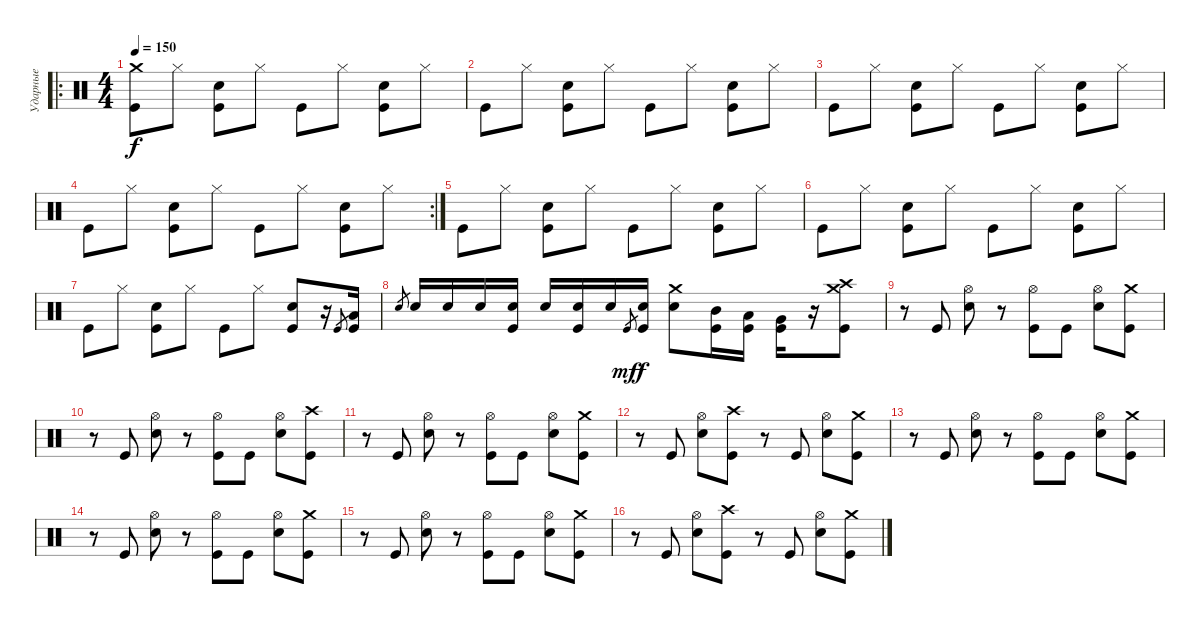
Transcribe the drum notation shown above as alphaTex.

\track ("Ударные" "Ударные") {instrument percussion}
\staff {score}
\articulation defaults
\ro
\ts (4 4)
\section ("" "")
\tempo 150
\clef neutral
\ks c
("Crash medium (hit)" "Kick (hit)").8{dy f} "Hi-Hat (closed)".8 ("Electric Snare (hit)" "Kick (hit)").8 "Hi-Hat (closed)".8 "Kick (hit)".8 "Hi-Hat (closed)".8 ("Electric Snare (hit)" "Kick (hit)").8 "Hi-Hat (closed)".8 |
"Kick (hit)".8 "Hi-Hat (closed)".8 ("Electric Snare (hit)" "Kick (hit)").8 "Hi-Hat (closed)".8 "Kick (hit)".8 "Hi-Hat (closed)".8 ("Electric Snare (hit)" "Kick (hit)").8 "Hi-Hat (closed)".8 |
"Kick (hit)".8 "Hi-Hat (closed)".8 ("Electric Snare (hit)" "Kick (hit)").8 "Hi-Hat (closed)".8 "Kick (hit)".8 "Hi-Hat (closed)".8 ("Electric Snare (hit)" "Kick (hit)").8 "Hi-Hat (closed)".8 |
\rc 2 "Kick (hit)".8 "Hi-Hat (closed)".8
("Electric Snare (hit)" "Kick (hit)").8 "Hi-Hat (closed)".8 "Kick (hit)".8 "Hi-Hat (closed)".8 ("Electric Snare (hit)" "Kick (hit)").8 "Hi-Hat (closed)".8 |
"Kick (hit)".8 "Hi-Hat (closed)".8 ("Electric Snare (hit)" "Kick (hit)").8 "Hi-Hat (closed)".8 "Kick (hit)".8 "Hi-Hat (closed)".8 ("Electric Snare (hit)" "Kick (hit)").8 "Hi-Hat (closed)".8 |
"Kick (hit)".8 "Hi-Hat (closed)".8 ("Electric Snare (hit)" "Kick (hit)").8 "Hi-Hat (closed)".8 "Kick (hit)".8 "Hi-Hat (closed)".8 ("Electric Snare (hit)" "Kick (hit)").8 "Hi-Hat (closed)".8 |
"Kick (hit)".8 "Hi-Hat (closed)".8 ("Electric Snare (hit)" "Kick (hit)").8 "Hi-Hat (closed)".8 "Kick (hit)".8 "Hi-Hat (closed)".8 ("Electric Snare (hit)" "Kick (hit)").8 r.16 "Kick (hit)".8{gr} ("Low Floor Tom (hit)" "Kick (hit)").16 |
"Electric Snare (hit)".8{gr} "Electric Snare (hit)".16 "Electric Snare (hit)".16 "Electric Snare (hit)".16 ("Electric Snare (hit)" "Kick (hit)").16 "Electric Snare (hit)".16 ("Electric Snare (hit)" "Kick (hit)").16 "Electric Snare (hit)".16 "Kick (hit)".8{gr dy mf} ("Electric Snare (hit)" "Kick (hit)").16{dy f} ("Crash medium (hit)" "Electric Snare (hit)").8 ("Mid Tom (hit)" "Kick (hit)").16 ("Low Tom (hit)" "Kick (hit)").16 ("Very Low Tom (hit)" "Kick (hit)").16 r.16 ("Crash high (hit)" "Crash medium (hit)" "Kick (hit)").8 |
r.8 "Kick (hit)".8 ("Hi-Hat (open)" "Electric Snare (hit)").8 r.8 ("Hi-Hat (open)" "Kick (hit)").8 "Kick (hit)".8 ("Hi-Hat (open)" "Electric Snare (hit)").8 ("Crash medium (hit)" "Kick (hit)").8 |
r.8 "Kick (hit)".8 ("Hi-Hat (open)" "Electric Snare (hit)").8 r.8 ("Hi-Hat (open)" "Kick (hit)").8 "Kick (hit)".8 ("Hi-Hat (open)" "Electric Snare (hit)").8 ("Crash high (hit)" "Kick (hit)").8 |
r.8 "Kick (hit)".8 ("Hi-Hat (open)" "Electric Snare (hit)").8 r.8 ("Hi-Hat (open)" "Kick (hit)").8 "Kick (hit)".8 ("Hi-Hat (open)" "Electric Snare (hit)").8 ("Crash medium (hit)" "Kick (hit)").8 |
r.8 "Kick (hit)".8 ("Hi-Hat (open)" "Electric Snare (hit)").8 ("Crash high (hit)" "Kick (hit)").8 r.8 "Kick (hit)".8 ("Hi-Hat (open)" "Electric Snare (hit)").8 ("Crash medium (hit)" "Kick (hit)").8 |
r.8 "Kick (hit)".8 ("Hi-Hat (open)" "Electric Snare (hit)").8 r.8 ("Hi-Hat (open)" "Kick (hit)").8 "Kick (hit)".8 ("Hi-Hat (open)" "Electric Snare (hit)").8 ("Crash medium (hit)" "Kick (hit)").8 |
r.8 "Kick (hit)".8 ("Hi-Hat (open)" "Electric Snare (hit)").8 r.8 ("Hi-Hat (open)" "Kick (hit)").8 "Kick (hit)".8 ("Hi-Hat (open)" "Electric Snare (hit)").8 ("Crash medium (hit)" "Kick (hit)").8 |
r.8 "Kick (hit)".8 ("Hi-Hat (open)" "Electric Snare (hit)").8 r.8 ("Hi-Hat (open)" "Kick (hit)").8 "Kick (hit)".8 ("Hi-Hat (open)" "Electric Snare (hit)").8 ("Crash medium (hit)" "Kick (hit)").8 |
r.8 "Kick (hit)".8 ("Hi-Hat (open)" "Electric Snare (hit)").8 ("Crash high (hit)" "Kick (hit)").8 r.8 "Kick (hit)".8 ("Hi-Hat (open)" "Electric Snare (hit)").8 ("Crash medium (hit)" "Kick (hit)").8
